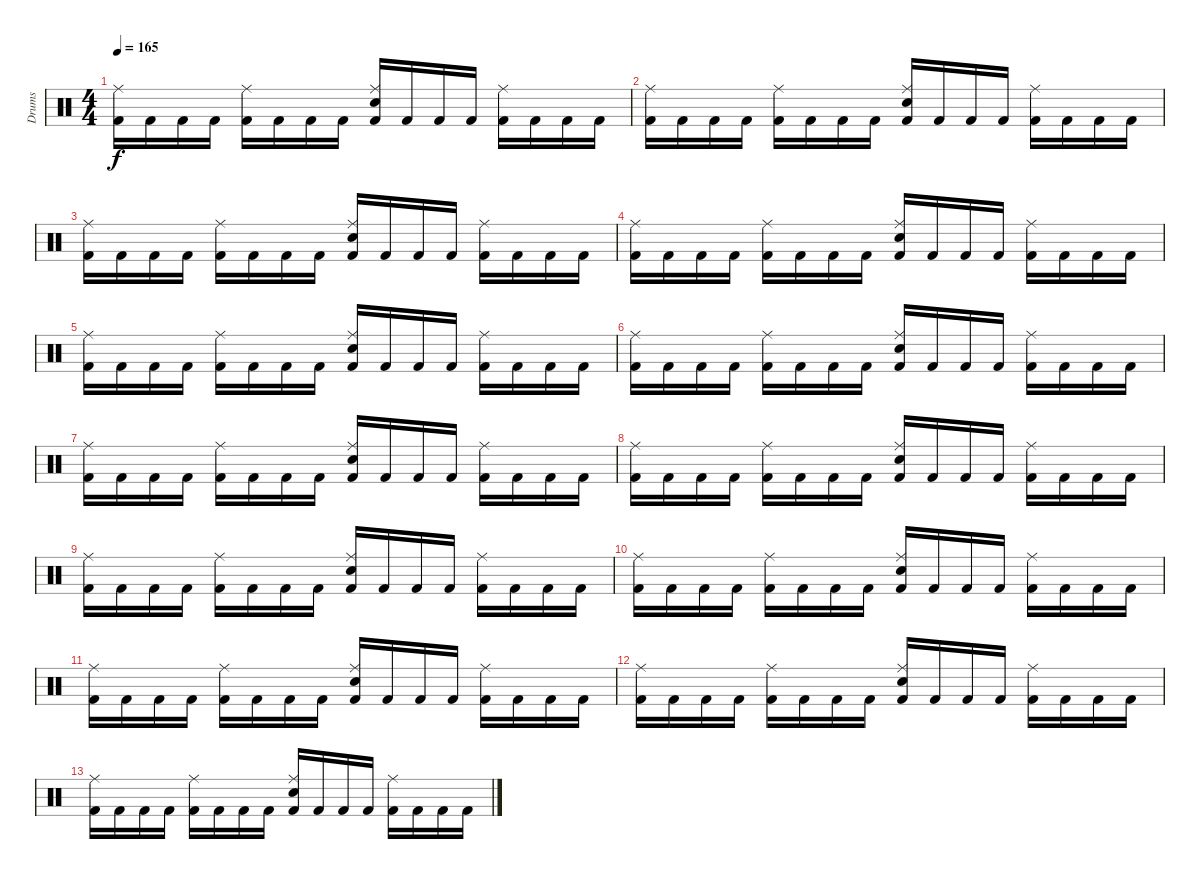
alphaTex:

\track ("Drums" "Drums") {instrument percussion}
\staff {score}
\articulation defaults
\ts (4 4)
\tempo 165
\clef neutral
\ks aminor
("Kick (hit) 2" "Ride (middle)").16{dy f} "Kick (hit) 2".16 "Kick (hit) 2".16 "Kick (hit) 2".16 ("Kick (hit) 2" "Ride (middle)").16 "Kick (hit) 2".16 "Kick (hit) 2".16 "Kick (hit) 2".16 ("Kick (hit) 2" "Electric Snare (hit)" "Ride (middle)").16 "Kick (hit) 2".16 "Kick (hit) 2".16 "Kick (hit) 2".16 ("Kick (hit) 2" "Ride (middle)").16 "Kick (hit) 2".16 "Kick (hit) 2".16 "Kick (hit) 2".16 |
("Kick (hit) 2" "Ride (middle)").16{volume 6} "Kick (hit) 2".16 "Kick (hit) 2".16 "Kick (hit) 2".16 ("Kick (hit) 2" "Ride (middle)").16 "Kick (hit) 2".16 "Kick (hit) 2".16 "Kick (hit) 2".16 ("Kick (hit) 2" "Electric Snare (hit)" "Ride (middle)").16 "Kick (hit) 2".16 "Kick (hit) 2".16 "Kick (hit) 2".16 ("Kick (hit) 2" "Ride (middle)").16 "Kick (hit) 2".16 "Kick (hit) 2".16 "Kick (hit) 2".16 |
("Kick (hit) 2" "Ride (middle)").16 "Kick (hit) 2".16 "Kick (hit) 2".16 "Kick (hit) 2".16 ("Kick (hit) 2" "Ride (middle)").16 "Kick (hit) 2".16 "Kick (hit) 2".16 "Kick (hit) 2".16 ("Kick (hit) 2" "Electric Snare (hit)" "Ride (middle)").16 "Kick (hit) 2".16 "Kick (hit) 2".16 "Kick (hit) 2".16 ("Kick (hit) 2" "Ride (middle)").16 "Kick (hit) 2".16 "Kick (hit) 2".16 "Kick (hit) 2".16 |
("Kick (hit) 2" "Ride (middle)").16 "Kick (hit) 2".16 "Kick (hit) 2".16 "Kick (hit) 2".16 ("Kick (hit) 2" "Ride (middle)").16 "Kick (hit) 2".16 "Kick (hit) 2".16 "Kick (hit) 2".16 ("Kick (hit) 2" "Electric Snare (hit)" "Ride (middle)").16 "Kick (hit) 2".16 "Kick (hit) 2".16 "Kick (hit) 2".16 ("Kick (hit) 2" "Ride (middle)").16 "Kick (hit) 2".16 "Kick (hit) 2".16 "Kick (hit) 2".16 |
("Kick (hit) 2" "Ride (middle)").16 "Kick (hit) 2".16 "Kick (hit) 2".16 "Kick (hit) 2".16 ("Kick (hit) 2" "Ride (middle)").16 "Kick (hit) 2".16 "Kick (hit) 2".16 "Kick (hit) 2".16 ("Kick (hit) 2" "Electric Snare (hit)" "Ride (middle)").16 "Kick (hit) 2".16 "Kick (hit) 2".16 "Kick (hit) 2".16 ("Kick (hit) 2" "Ride (middle)").16 "Kick (hit) 2".16 "Kick (hit) 2".16 "Kick (hit) 2".16 |
("Kick (hit) 2" "Ride (middle)").16{volume 3} "Kick (hit) 2".16 "Kick (hit) 2".16 "Kick (hit) 2".16 ("Kick (hit) 2" "Ride (middle)").16 "Kick (hit) 2".16 "Kick (hit) 2".16 "Kick (hit) 2".16 ("Kick (hit) 2" "Electric Snare (hit)" "Ride (middle)").16 "Kick (hit) 2".16 "Kick (hit) 2".16 "Kick (hit) 2".16 ("Kick (hit) 2" "Ride (middle)").16 "Kick (hit) 2".16 "Kick (hit) 2".16 "Kick (hit) 2".16 |
("Kick (hit) 2" "Ride (middle)").16 "Kick (hit) 2".16 "Kick (hit) 2".16 "Kick (hit) 2".16 ("Kick (hit) 2" "Ride (middle)").16 "Kick (hit) 2".16 "Kick (hit) 2".16 "Kick (hit) 2".16 ("Kick (hit) 2" "Electric Snare (hit)" "Ride (middle)").16 "Kick (hit) 2".16 "Kick (hit) 2".16 "Kick (hit) 2".16 ("Kick (hit) 2" "Ride (middle)").16 "Kick (hit) 2".16 "Kick (hit) 2".16 "Kick (hit) 2".16 |
("Kick (hit) 2" "Ride (middle)").16 "Kick (hit) 2".16 "Kick (hit) 2".16 "Kick (hit) 2".16 ("Kick (hit) 2" "Ride (middle)").16 "Kick (hit) 2".16 "Kick (hit) 2".16 "Kick (hit) 2".16 ("Kick (hit) 2" "Electric Snare (hit)" "Ride (middle)").16 "Kick (hit) 2".16 "Kick (hit) 2".16 "Kick (hit) 2".16 ("Kick (hit) 2" "Ride (middle)").16 "Kick (hit) 2".16 "Kick (hit) 2".16 "Kick (hit) 2".16 |
("Kick (hit) 2" "Ride (middle)").16 "Kick (hit) 2".16 "Kick (hit) 2".16 "Kick (hit) 2".16 ("Kick (hit) 2" "Ride (middle)").16 "Kick (hit) 2".16 "Kick (hit) 2".16 "Kick (hit) 2".16 ("Kick (hit) 2" "Electric Snare (hit)" "Ride (middle)").16 "Kick (hit) 2".16 "Kick (hit) 2".16 "Kick (hit) 2".16 ("Kick (hit) 2" "Ride (middle)").16 "Kick (hit) 2".16 "Kick (hit) 2".16 "Kick (hit) 2".16 |
("Kick (hit) 2" "Ride (middle)").16{volume 0} "Kick (hit) 2".16 "Kick (hit) 2".16 "Kick (hit) 2".16 ("Kick (hit) 2" "Ride (middle)").16 "Kick (hit) 2".16 "Kick (hit) 2".16 "Kick (hit) 2".16 ("Kick (hit) 2" "Electric Snare (hit)" "Ride (middle)").16 "Kick (hit) 2".16 "Kick (hit) 2".16 "Kick (hit) 2".16 ("Kick (hit) 2" "Ride (middle)").16 "Kick (hit) 2".16 "Kick (hit) 2".16 "Kick (hit) 2".16 |
("Kick (hit) 2" "Ride (middle)").16 "Kick (hit) 2".16 "Kick (hit) 2".16 "Kick (hit) 2".16 ("Kick (hit) 2" "Ride (middle)").16 "Kick (hit) 2".16 "Kick (hit) 2".16 "Kick (hit) 2".16 ("Kick (hit) 2" "Electric Snare (hit)" "Ride (middle)").16 "Kick (hit) 2".16 "Kick (hit) 2".16 "Kick (hit) 2".16 ("Kick (hit) 2" "Ride (middle)").16 "Kick (hit) 2".16 "Kick (hit) 2".16 "Kick (hit) 2".16 |
("Kick (hit) 2" "Ride (middle)").16 "Kick (hit) 2".16 "Kick (hit) 2".16 "Kick (hit) 2".16 ("Kick (hit) 2" "Ride (middle)").16 "Kick (hit) 2".16 "Kick (hit) 2".16 "Kick (hit) 2".16 ("Kick (hit) 2" "Electric Snare (hit)" "Ride (middle)").16 "Kick (hit) 2".16 "Kick (hit) 2".16 "Kick (hit) 2".16 ("Kick (hit) 2" "Ride (middle)").16 "Kick (hit) 2".16 "Kick (hit) 2".16 "Kick (hit) 2".16 |
("Kick (hit) 2" "Ride (middle)").16 "Kick (hit) 2".16 "Kick (hit) 2".16 "Kick (hit) 2".16 ("Kick (hit) 2" "Ride (middle)").16 "Kick (hit) 2".16 "Kick (hit) 2".16 "Kick (hit) 2".16 ("Kick (hit) 2" "Electric Snare (hit)" "Ride (middle)").16 "Kick (hit) 2".16 "Kick (hit) 2".16 "Kick (hit) 2".16 ("Kick (hit) 2" "Ride (middle)").16 "Kick (hit) 2".16 "Kick (hit) 2".16 "Kick (hit) 2".16
